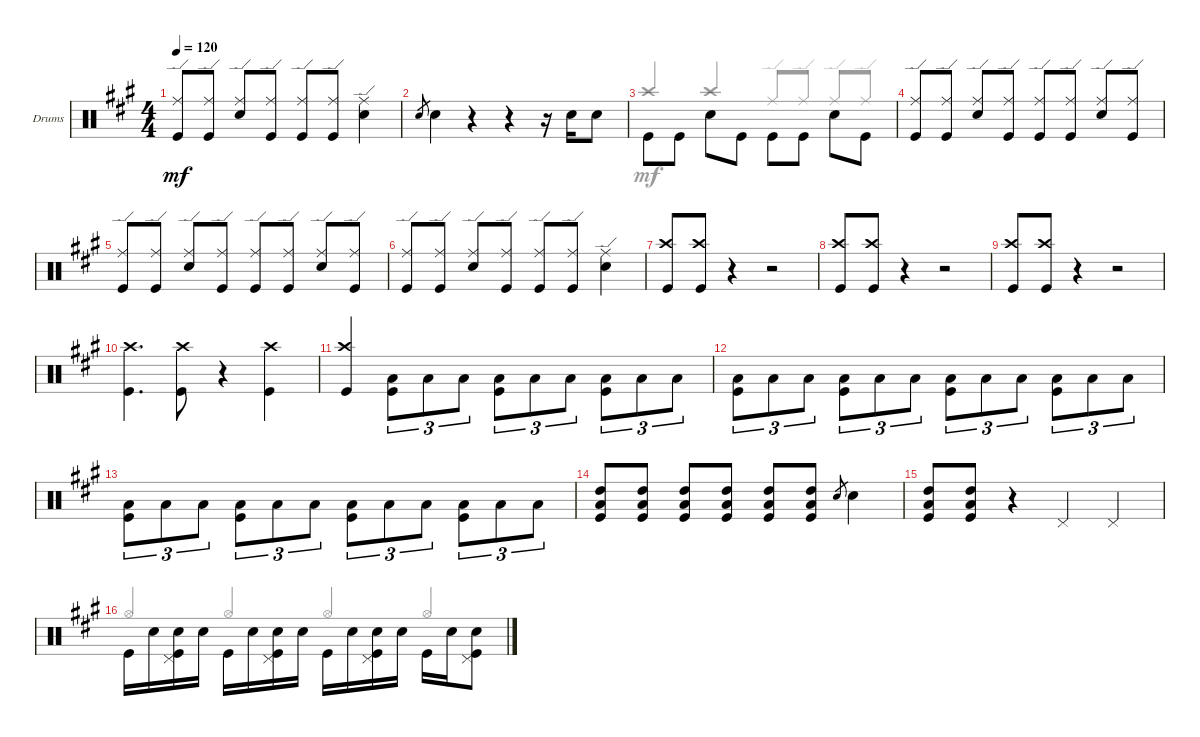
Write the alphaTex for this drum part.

\defaultSystemsLayout 4
\bracketExtendMode groupsimilarinstruments
\firstSystemTrackNameOrientation horizontal
\otherSystemsTrackNameOrientation horizontal
\track ("PETER CRISS" "Drums") {mute instrument percussion}
\staff {score}
\articulation defaults
\voice
\ts (4 4)
\tempo 120
\clef neutral
\ks a
("Kick (hit)" "Ride (edge)").8{dy mf beam invert} ("Kick (hit)" "Ride (edge)").8 ("Snare (hit) 2" "Ride (edge)").8{beam invert} ("Kick (hit)" "Ride (edge)").8 ("Kick (hit)" "Ride (edge)").8{beam invert} ("Kick (hit)" "Ride (edge)").8 ("Snare (hit) 2" "Ride (edge)").4 |
"Snare (hit) 2".8{gr} "Snare (hit) 2".4 r.4 r.4 r.16 "Snare (hit) 2".16 "Snare (hit) 2".8 |
"Kick (hit)".8{beam invert} "Kick (hit)".8 "Snare (hit) 2".8{beam invert} "Kick (hit)".8 "Kick (hit)".8{beam invert} "Kick (hit)".8 "Snare (hit) 2".8{beam invert} "Kick (hit)".8 |
("Kick (hit)" "Ride (edge)").8{beam invert} ("Kick (hit)" "Ride (edge)").8 ("Snare (hit) 2" "Ride (edge)").8{beam invert} ("Kick (hit)" "Ride (edge)").8 ("Kick (hit)" "Ride (edge)").8{beam invert} ("Kick (hit)" "Ride (edge)").8 ("Snare (hit) 2" "Ride (edge)").8{beam invert} ("Kick (hit)" "Ride (edge)").8 |
("Kick (hit)" "Ride (edge)").8{beam invert} ("Kick (hit)" "Ride (edge)").8 ("Snare (hit) 2" "Ride (edge)").8{beam invert} ("Kick (hit)" "Ride (edge)").8 ("Kick (hit)" "Ride (edge)").8{beam invert} ("Kick (hit)" "Ride (edge)").8 ("Snare (hit) 2" "Ride (edge)").8{beam invert} ("Kick (hit)" "Ride (edge)").8 |
("Kick (hit)" "Ride (edge)").8{beam invert} ("Kick (hit)" "Ride (edge)").8 ("Snare (hit) 2" "Ride (edge)").8{beam invert} ("Kick (hit)" "Ride (edge)").8 ("Kick (hit)" "Ride (edge)").8{beam invert} ("Kick (hit)" "Ride (edge)").8 ("Snare (hit) 2" "Ride (edge)").4 |
("Crash high (hit)" "Kick (hit)").8{beam invert} ("Crash high (hit)" "Kick (hit)").8 r.4 r.2 |
("Crash high (hit)" "Kick (hit)").8{beam invert} ("Crash high (hit)" "Kick (hit)").8 r.4 r.2 |
("Crash high (hit)" "Kick (hit)").8{beam invert} ("Crash high (hit)" "Kick (hit)").8 r.4 r.2 |
("Kick (hit)" "Crash high (hit)").4{d} ("Crash high (hit)" "Kick (hit)").8 r.4 ("Crash high (hit)" "Kick (hit)").4 |
("Kick (hit)" "Crash high (hit)").4{beam invert} ("Kick (hit)" "Low Tom (hit)").8{tu (3 2) beam invert} "Low Tom (hit)".8{tu (3 2)} "Low Tom (hit)".8{tu (3 2)} ("Kick (hit)" "Low Tom (hit)").8{tu (3 2) beam invert} "Low Tom (hit)".8{tu (3 2)} "Low Tom (hit)".8{tu (3 2)} ("Kick (hit)" "Low Tom (hit)").8{tu (3 2) beam invert} "Low Tom (hit)".8{tu (3 2)} "Low Tom (hit)".8{tu (3 2)} |
("Kick (hit)" "Low Tom (hit)").8{tu (3 2) beam invert} "Low Tom (hit)".8{tu (3 2)} "Low Tom (hit)".8{tu (3 2)} ("Kick (hit)" "Low Tom (hit)").8{tu (3 2) beam invert} "Low Tom (hit)".8{tu (3 2)} "Low Tom (hit)".8{tu (3 2)} ("Kick (hit)" "Low Tom (hit)").8{tu (3 2) beam invert} "Low Tom (hit)".8{tu (3 2)} "Low Tom (hit)".8{tu (3 2)} ("Kick (hit)" "Low Tom (hit)").8{tu (3 2) beam invert} "Low Tom (hit)".8{tu (3 2)} "Low Tom (hit)".8{tu (3 2)} |
("Kick (hit)" "Low Tom (hit)").8{tu (3 2) beam invert} "Low Tom (hit)".8{tu (3 2)} "Low Tom (hit)".8{tu (3 2)} ("Kick (hit)" "Low Tom (hit)").8{tu (3 2) beam invert} "Low Tom (hit)".8{tu (3 2)} "Low Tom (hit)".8{tu (3 2)} ("Kick (hit)" "Low Tom (hit)").8{tu (3 2) beam invert} "Low Tom (hit)".8{tu (3 2)} "Low Tom (hit)".8{tu (3 2)} ("Kick (hit)" "Low Tom (hit)").8{tu (3 2) beam invert} "Low Tom (hit)".8{tu (3 2)} "Low Tom (hit)".8{tu (3 2)} |
("Kick (hit)" "Low Tom (hit)" "High Tom (hit)").8 ("Kick (hit)" "Low Tom (hit)" "High Tom (hit)").8 ("Kick (hit)" "Low Tom (hit)" "High Tom (hit)").8 ("Kick (hit)" "Low Tom (hit)" "High Tom (hit)").8 ("Kick (hit)" "Low Tom (hit)" "High Tom (hit)").8 ("Kick (hit)" "Low Tom (hit)" "High Tom (hit)").8 "Snare (hit) 2".8{gr} "Snare (hit) 2".4 |
("High Tom (hit)" "Kick (hit)" "Low Tom (hit)").8 ("Kick (hit)" "Low Tom (hit)" "High Tom (hit)").8 r.4 "Pedal Hi-Hat (hit)".4 "Pedal Hi-Hat (hit)".4 |
"Kick (hit)".16{beam invert} "Snare (hit) 2".16 ("Snare (hit) 2" "Kick (hit)" "Pedal Hi-Hat (hit)").16 "Snare (hit) 2".16 "Kick (hit)".16{beam invert} "Snare (hit) 2".16 ("Snare (hit) 2" "Kick (hit)" "Pedal Hi-Hat (hit)").16 "Snare (hit) 2".16 "Kick (hit)".16{beam invert} "Snare (hit) 2".16 ("Snare (hit) 2" "Kick (hit)" "Pedal Hi-Hat (hit)").16 "Snare (hit) 2".16 "Kick (hit)".16{beam invert} "Snare (hit) 2".16 ("Snare (hit) 2" "Kick (hit)" "Pedal Hi-Hat (hit)").8
\voice
\clef neutral
\ottava regular
\simile none
\ks a
|
|
"Crash high (hit)".4{beam invert} "Crash high (hit)".4{beam invert} "Ride (edge)".8{beam invert} "Ride (edge)".8 "Ride (edge)".8{beam invert} "Ride (edge)".8 |
|
|
|
|
|
|
|
|
|
|
|
|
"Hi-Hat (open)".4{beam invert} "Hi-Hat (open)".4{beam invert} "Hi-Hat (open)".4{beam invert} "Hi-Hat (open)".4{beam invert}
